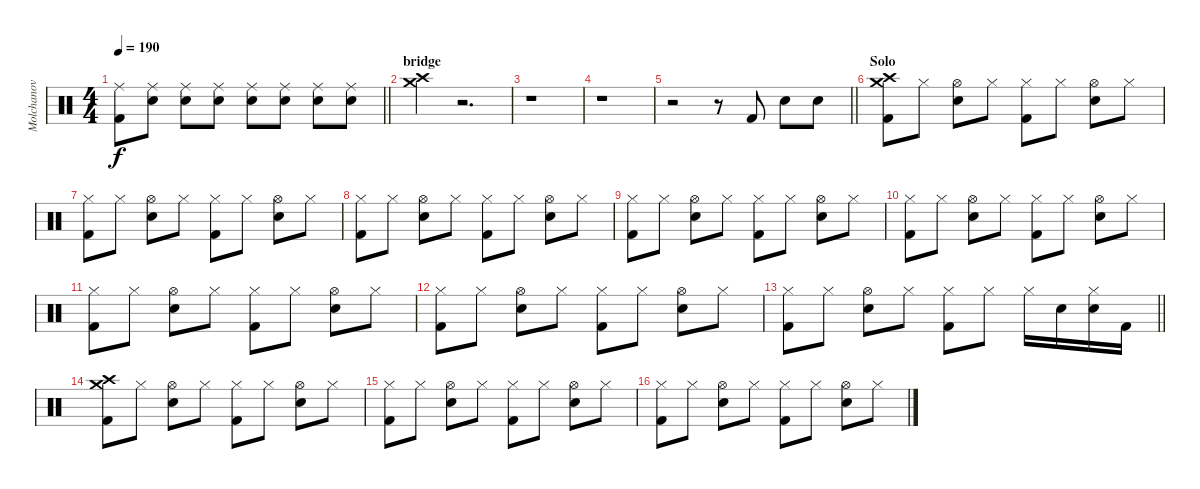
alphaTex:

\track ("Molchanov" "Molchanov") {instrument percussion}
\staff {score}
\articulation defaults
\ts (4 4)
\tempo 190
\clef neutral
\barLineRight lightlight
\ks c
("Ride (middle)" "Kick (hit) 2").8{dy f} ("Ride (middle)" "Snare (hit) 2").8 ("Ride (middle)" "Snare (hit) 2").8 ("Ride (middle)" "Snare (hit) 2").8 ("Ride (middle)" "Snare (hit) 2").8 ("Ride (middle)" "Snare (hit) 2").8 ("Ride (middle)" "Snare (hit) 2").8 ("Ride (middle)" "Snare (hit) 2").8 |
\section ("" "bridge")
("Crash high (hit)" "Crash medium (hit)").4 r.2{d} |
r.1 |
r.1 |
\barLineRight lightlight
r.2 r.8 "Kick (hit) 2".8 "Snare (hit) 2".8 "Snare (hit) 2".8 |
\section ("" "Solo")
("Crash high (hit)" "Crash medium (hit)" "Kick (hit) 2").8 "Hi-Hat (closed)".8 ("Hi-Hat (open)" "Snare (hit) 2").8 "Hi-Hat (closed)".8 ("Hi-Hat (closed)" "Kick (hit) 2").8 "Hi-Hat (closed)".8 ("Hi-Hat (open)" "Snare (hit) 2").8 "Hi-Hat (closed)".8 |
("Hi-Hat (closed)" "Kick (hit) 2").8 "Hi-Hat (closed)".8 ("Hi-Hat (open)" "Snare (hit) 2").8 "Hi-Hat (closed)".8 ("Hi-Hat (closed)" "Kick (hit) 2").8 "Hi-Hat (closed)".8 ("Hi-Hat (open)" "Snare (hit) 2").8 "Hi-Hat (closed)".8 |
("Hi-Hat (closed)" "Kick (hit) 2").8 "Hi-Hat (closed)".8 ("Hi-Hat (open)" "Snare (hit) 2").8 "Hi-Hat (closed)".8 ("Hi-Hat (closed)" "Kick (hit) 2").8 "Hi-Hat (closed)".8 ("Hi-Hat (open)" "Snare (hit) 2").8 "Hi-Hat (closed)".8 |
("Hi-Hat (closed)" "Kick (hit) 2").8 "Hi-Hat (closed)".8 ("Hi-Hat (open)" "Snare (hit) 2").8 "Hi-Hat (closed)".8 ("Hi-Hat (closed)" "Kick (hit) 2").8 "Hi-Hat (closed)".8 ("Hi-Hat (open)" "Snare (hit) 2").8 "Hi-Hat (closed)".8 |
("Hi-Hat (closed)" "Kick (hit) 2").8 "Hi-Hat (closed)".8 ("Hi-Hat (open)" "Snare (hit) 2").8 "Hi-Hat (closed)".8 ("Hi-Hat (closed)" "Kick (hit) 2").8 "Hi-Hat (closed)".8 ("Hi-Hat (open)" "Snare (hit) 2").8 "Hi-Hat (closed)".8 |
("Hi-Hat (closed)" "Kick (hit) 2").8 "Hi-Hat (closed)".8 ("Hi-Hat (open)" "Snare (hit) 2").8 "Hi-Hat (closed)".8 ("Hi-Hat (closed)" "Kick (hit) 2").8 "Hi-Hat (closed)".8 ("Hi-Hat (open)" "Snare (hit) 2").8 "Hi-Hat (closed)".8 |
("Hi-Hat (closed)" "Kick (hit) 2").8 "Hi-Hat (closed)".8 ("Hi-Hat (open)" "Snare (hit) 2").8 "Hi-Hat (closed)".8 ("Hi-Hat (closed)" "Kick (hit) 2").8 "Hi-Hat (closed)".8 ("Hi-Hat (open)" "Snare (hit) 2").8 "Hi-Hat (closed)".8 |
\barLineRight lightlight
("Hi-Hat (closed)" "Kick (hit) 2").8 "Hi-Hat (closed)".8 ("Hi-Hat (open)" "Snare (hit) 2").8 "Hi-Hat (closed)".8 ("Hi-Hat (closed)" "Kick (hit) 2").8 "Hi-Hat (closed)".8 "Hi-Hat (closed)".16 "Snare (hit) 2".16 ("Hi-Hat (closed)" "Snare (hit) 2").16 "Kick (hit) 2".16 |
("Crash high (hit)" "Crash medium (hit)" "Kick (hit) 2").8 "Hi-Hat (closed)".8 ("Hi-Hat (open)" "Snare (hit) 2").8 "Hi-Hat (closed)".8 ("Hi-Hat (closed)" "Kick (hit) 2").8 "Hi-Hat (closed)".8 ("Hi-Hat (open)" "Snare (hit) 2").8 "Hi-Hat (closed)".8 |
("Hi-Hat (closed)" "Kick (hit) 2").8 "Hi-Hat (closed)".8 ("Hi-Hat (open)" "Snare (hit) 2").8 "Hi-Hat (closed)".8 ("Hi-Hat (closed)" "Kick (hit) 2").8 "Hi-Hat (closed)".8 ("Hi-Hat (open)" "Snare (hit) 2").8 "Hi-Hat (closed)".8 |
("Hi-Hat (closed)" "Kick (hit) 2").8 "Hi-Hat (closed)".8 ("Hi-Hat (open)" "Snare (hit) 2").8 "Hi-Hat (closed)".8 ("Hi-Hat (closed)" "Kick (hit) 2").8 "Hi-Hat (closed)".8 ("Hi-Hat (open)" "Snare (hit) 2").8 "Hi-Hat (closed)".8
